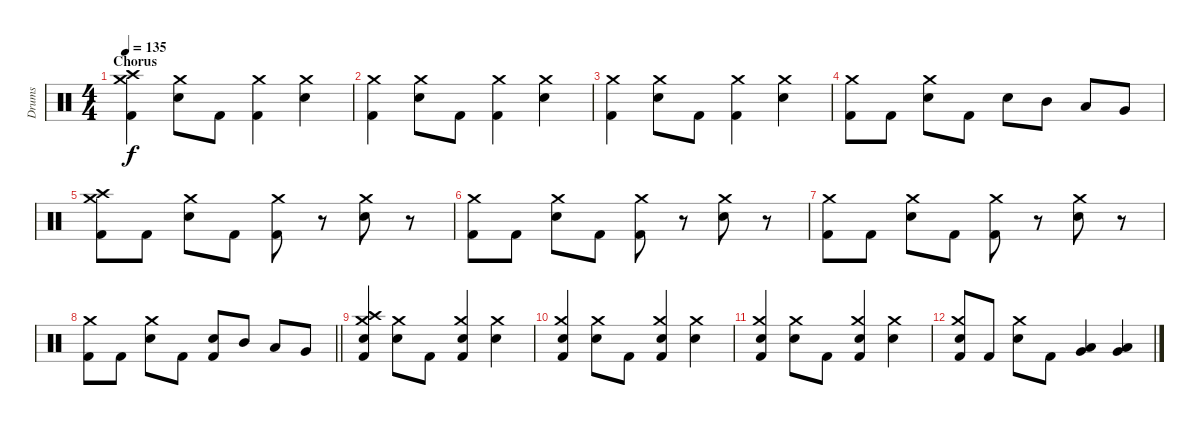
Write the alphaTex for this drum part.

\track ("Drums" "Drums") {instrument percussion}
\staff {score}
\articulation defaults
\ts (4 4)
\section ("" "Chorus")
\tempo 135
\clef neutral
\ks c
("Kick (hit) 2" "Crash medium (hit)" "Crash high (hit)").4{dy f} ("Snare (hit) 2" "Crash medium (hit)").8 "Kick (hit) 2".8 ("Kick (hit) 2" "Crash medium (hit)").4 ("Snare (hit) 2" "Crash medium (hit)").4 |
("Kick (hit) 2" "Crash medium (hit)").4 ("Snare (hit) 2" "Crash medium (hit)").8 "Kick (hit) 2".8 ("Kick (hit) 2" "Crash medium (hit)").4 ("Snare (hit) 2" "Crash medium (hit)").4 |
("Kick (hit) 2" "Crash medium (hit)").4 ("Snare (hit) 2" "Crash medium (hit)").8 "Kick (hit) 2".8 ("Kick (hit) 2" "Crash medium (hit)").4 ("Snare (hit) 2" "Crash medium (hit)").4 |
("Kick (hit) 2" "Crash medium (hit)").8 "Kick (hit) 2".8 ("Snare (hit) 2" "Crash medium (hit)").8 "Kick (hit) 2".8 "Snare (hit) 2".8 "Mid Tom (hit)".8 "Low Tom (hit)".8 "Very Low Tom (hit)".8 |
("Kick (hit) 2" "Crash medium (hit)" "Crash high (hit)").8 "Kick (hit) 2".8 ("Snare (hit) 2" "Crash medium (hit)").8 "Kick (hit) 2".8 ("Kick (hit) 2" "Crash medium (hit)").8 r.8 ("Snare (hit) 2" "Crash medium (hit)").8 r.8 |
("Kick (hit) 2" "Crash medium (hit)").8 "Kick (hit) 2".8 ("Snare (hit) 2" "Crash medium (hit)").8 "Kick (hit) 2".8 ("Kick (hit) 2" "Crash medium (hit)").8 r.8 ("Snare (hit) 2" "Crash medium (hit)").8 r.8 |
("Kick (hit) 2" "Crash medium (hit)").8 "Kick (hit) 2".8 ("Snare (hit) 2" "Crash medium (hit)").8 "Kick (hit) 2".8 ("Kick (hit) 2" "Crash medium (hit)").8 r.8 ("Snare (hit) 2" "Crash medium (hit)").8 r.8 |
\barLineRight lightlight
("Kick (hit) 2" "Crash medium (hit)").8 "Kick (hit) 2".8 ("Snare (hit) 2" "Crash medium (hit)").8 "Kick (hit) 2".8 ("Kick (hit) 2" "Snare (hit) 2").8 "Mid Tom (hit)".8 "Low Tom (hit)".8 "Very Low Tom (hit)".8 |
\section ("" "")
("Kick (hit) 2" "Snare (hit) 2" "Crash medium (hit)" "Crash high (hit)").4 ("Snare (hit) 2" "Crash medium (hit)").8 "Kick (hit) 2".8 ("Kick (hit) 2" "Snare (hit) 2" "Crash medium (hit)").4 ("Snare (hit) 2" "Crash medium (hit)").4 |
("Kick (hit) 2" "Snare (hit) 2" "Crash medium (hit)").4 ("Snare (hit) 2" "Crash medium (hit)").8 "Kick (hit) 2".8 ("Kick (hit) 2" "Snare (hit) 2" "Crash medium (hit)").4 ("Snare (hit) 2" "Crash medium (hit)").4 |
("Kick (hit) 2" "Snare (hit) 2" "Crash medium (hit)").4 ("Snare (hit) 2" "Crash medium (hit)").8 "Kick (hit) 2".8 ("Kick (hit) 2" "Snare (hit) 2" "Crash medium (hit)").4 ("Snare (hit) 2" "Crash medium (hit)").4 |
("Kick (hit) 2" "Snare (hit) 2" "Crash medium (hit)").8 "Kick (hit) 2".8 ("Snare (hit) 2" "Crash medium (hit)").8 "Kick (hit) 2".8 ("Very Low Tom (hit)" "Low Floor Tom (hit)").4 ("Very Low Tom (hit)" "Low Floor Tom (hit)").4
